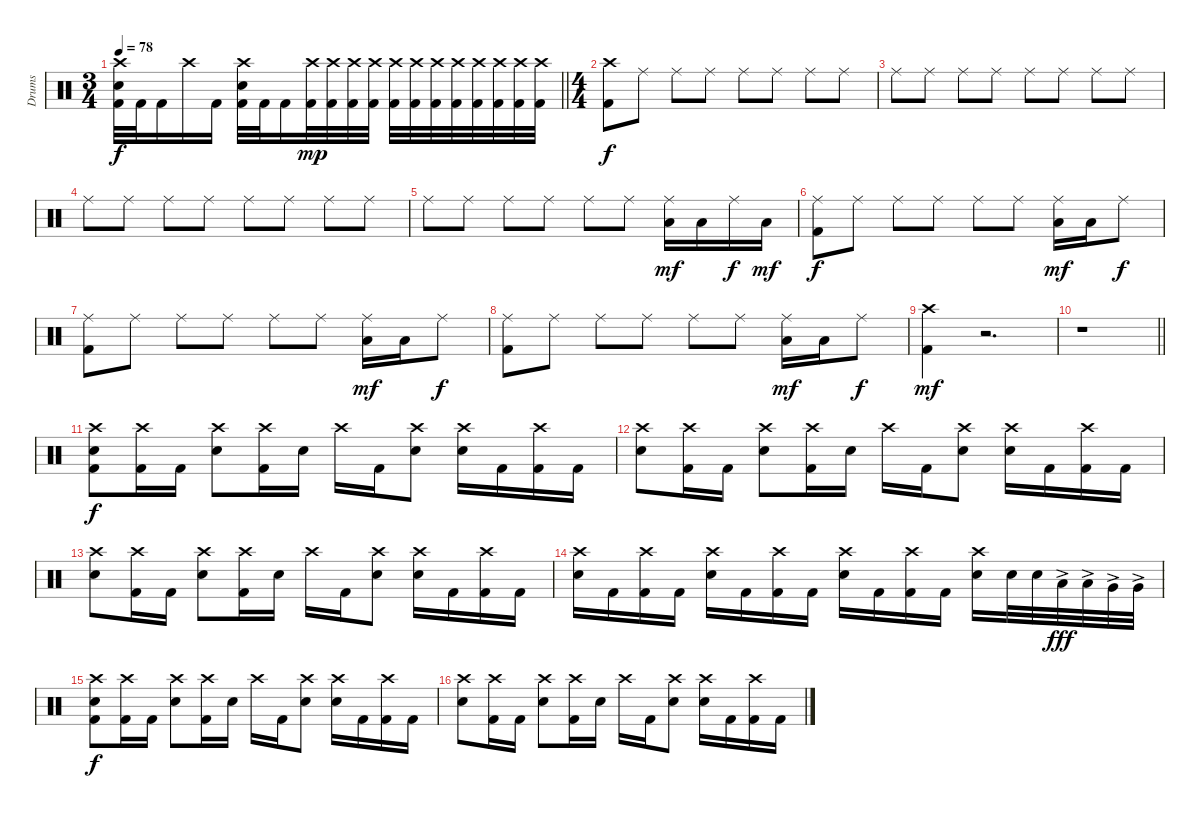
\track ("Drums" "Drums") {instrument percussion}
\staff {score}
\articulation defaults
\ts (3 4)
\tempo 78
\clef neutral
\barLineRight lightlight
\ks c
("Crash high (hit)" "Snare (hit) 2" "Kick (hit) 2").32{dy f} "Kick (hit) 2".32 "Kick (hit) 2".16 "Crash high (hit)".16 "Kick (hit) 2".16 ("Crash high (hit)" "Snare (hit) 2" "Kick (hit) 2").32 "Kick (hit) 2".32 "Kick (hit) 2".16 ("Crash high (hit)" "Kick (hit) 2").32{dy mp} ("Crash high (hit)" "Kick (hit) 2").32 ("Crash high (hit)" "Kick (hit) 2").32 ("Crash high (hit)" "Kick (hit) 2").32 ("Crash high (hit)" "Kick (hit) 2").32 ("Crash high (hit)" "Kick (hit) 2").32 ("Crash high (hit)" "Kick (hit) 2").32 ("Crash high (hit)" "Kick (hit) 2").32 ("Crash high (hit)" "Kick (hit) 2").32 ("Crash high (hit)" "Kick (hit) 2").32 ("Crash high (hit)" "Kick (hit) 2").32 ("Crash high (hit)" "Kick (hit) 2").32 |
\ts (4 4)
("Crash high (hit)" "Kick (hit) 2").8{dy f} "Ride (middle)".8 "Ride (middle)".8 "Ride (middle)".8 "Ride (middle)".8 "Ride (middle)".8 "Ride (middle)".8 "Ride (middle)".8 |
"Ride (middle)".8 "Ride (middle)".8 "Ride (middle)".8 "Ride (middle)".8 "Ride (middle)".8 "Ride (middle)".8 "Ride (middle)".8 "Ride (middle)".8 |
"Ride (middle)".8 "Ride (middle)".8 "Ride (middle)".8 "Ride (middle)".8 "Ride (middle)".8 "Ride (middle)".8 "Ride (middle)".8 "Ride (middle)".8 |
"Ride (middle)".8 "Ride (middle)".8 "Ride (middle)".8 "Ride (middle)".8 "Ride (middle)".8 "Ride (middle)".8 ("Ride (middle)" "Low Tom (hit)").16{dy mf} "Low Tom (hit)".16 "Ride (middle)".16{dy f} "Low Tom (hit)".16{dy mf} |
("Ride (middle)" "Kick (hit) 2").8{dy f} "Ride (middle)".8 "Ride (middle)".8 "Ride (middle)".8 "Ride (middle)".8 "Ride (middle)".8 ("Ride (middle)" "Low Tom (hit)").16{dy mf} "Low Tom (hit)".16 "Ride (middle)".8{dy f} |
("Ride (middle)" "Kick (hit) 2").8 "Ride (middle)".8 "Ride (middle)".8 "Ride (middle)".8 "Ride (middle)".8 "Ride (middle)".8 ("Ride (middle)" "Low Tom (hit)").16{dy mf} "Low Tom (hit)".16 "Ride (middle)".8{dy f} |
("Ride (middle)" "Kick (hit) 2").8 "Ride (middle)".8 "Ride (middle)".8 "Ride (middle)".8 "Ride (middle)".8 "Ride (middle)".8 ("Ride (middle)" "Low Tom (hit)").16{dy mf} "Low Tom (hit)".16 "Ride (middle)".8{dy f} |
("Crash high (hit)" "Kick (hit) 2").4{dy mf} r.2{d} |
\barLineRight lightlight
r.1 |
("Crash high (hit)" "Snare (hit) 2" "Kick (hit) 2").8{dy f volume 16} ("Crash high (hit)" "Kick (hit) 2").16 "Kick (hit) 2".16 ("Crash high (hit)" "Snare (hit) 2").8 ("Crash high (hit)" "Kick (hit) 2").16 "Snare (hit) 2".16 "Crash high (hit)".16 "Kick (hit) 2".16 ("Crash high (hit)" "Snare (hit) 2").8 ("Crash high (hit)" "Snare (hit) 2").16 "Kick (hit) 2".16 ("Crash high (hit)" "Kick (hit) 2").16 "Kick (hit) 2".16 |
("Crash high (hit)" "Snare (hit) 2").8 ("Crash high (hit)" "Kick (hit) 2").16 "Kick (hit) 2".16 ("Crash high (hit)" "Snare (hit) 2").8 ("Crash high (hit)" "Kick (hit) 2").16 "Snare (hit) 2".16 "Crash high (hit)".16 "Kick (hit) 2".16 ("Crash high (hit)" "Snare (hit) 2").8 ("Crash high (hit)" "Snare (hit) 2").16 "Kick (hit) 2".16 ("Crash high (hit)" "Kick (hit) 2").16 "Kick (hit) 2".16 |
("Crash high (hit)" "Snare (hit) 2").8 ("Crash high (hit)" "Kick (hit) 2").16 "Kick (hit) 2".16 ("Crash high (hit)" "Snare (hit) 2").8 ("Crash high (hit)" "Kick (hit) 2").16 "Snare (hit) 2".16 "Crash high (hit)".16 "Kick (hit) 2".16 ("Crash high (hit)" "Snare (hit) 2").8 ("Crash high (hit)" "Snare (hit) 2").16 "Kick (hit) 2".16 ("Crash high (hit)" "Kick (hit) 2").16 "Kick (hit) 2".16 |
("Crash high (hit)" "Snare (hit) 2").16 "Kick (hit) 2".16 ("Crash high (hit)" "Kick (hit) 2").16 "Kick (hit) 2".16 ("Crash high (hit)" "Snare (hit) 2").16 "Kick (hit) 2".16 ("Crash high (hit)" "Kick (hit) 2").16 "Kick (hit) 2".16 ("Crash high (hit)" "Snare (hit) 2").16 "Kick (hit) 2".16 ("Crash high (hit)" "Kick (hit) 2").16 "Kick (hit) 2".16 ("Crash high (hit)" "Snare (hit) 2").16 "Snare (hit) 2".32 "Snare (hit) 2".32 "Low Tom (hit)"{ac}.32{dy fff} "Low Tom (hit)"{ac}.32 "Very Low Tom (hit)"{ac}.32 "Very Low Tom (hit)"{ac}.32 |
("Crash high (hit)" "Snare (hit) 2" "Kick (hit) 2").8{dy f} ("Crash high (hit)" "Kick (hit) 2").16 "Kick (hit) 2".16 ("Crash high (hit)" "Snare (hit) 2").8 ("Crash high (hit)" "Kick (hit) 2").16 "Snare (hit) 2".16 "Crash high (hit)".16 "Kick (hit) 2".16 ("Crash high (hit)" "Snare (hit) 2").8 ("Crash high (hit)" "Snare (hit) 2").16 "Kick (hit) 2".16 ("Crash high (hit)" "Kick (hit) 2").16 "Kick (hit) 2".16 |
("Crash high (hit)" "Snare (hit) 2").8 ("Crash high (hit)" "Kick (hit) 2").16 "Kick (hit) 2".16 ("Crash high (hit)" "Snare (hit) 2").8 ("Crash high (hit)" "Kick (hit) 2").16 "Snare (hit) 2".16 "Crash high (hit)".16 "Kick (hit) 2".16 ("Crash high (hit)" "Snare (hit) 2").8 ("Crash high (hit)" "Snare (hit) 2").16 "Kick (hit) 2".16 ("Crash high (hit)" "Kick (hit) 2").16 "Kick (hit) 2".16
